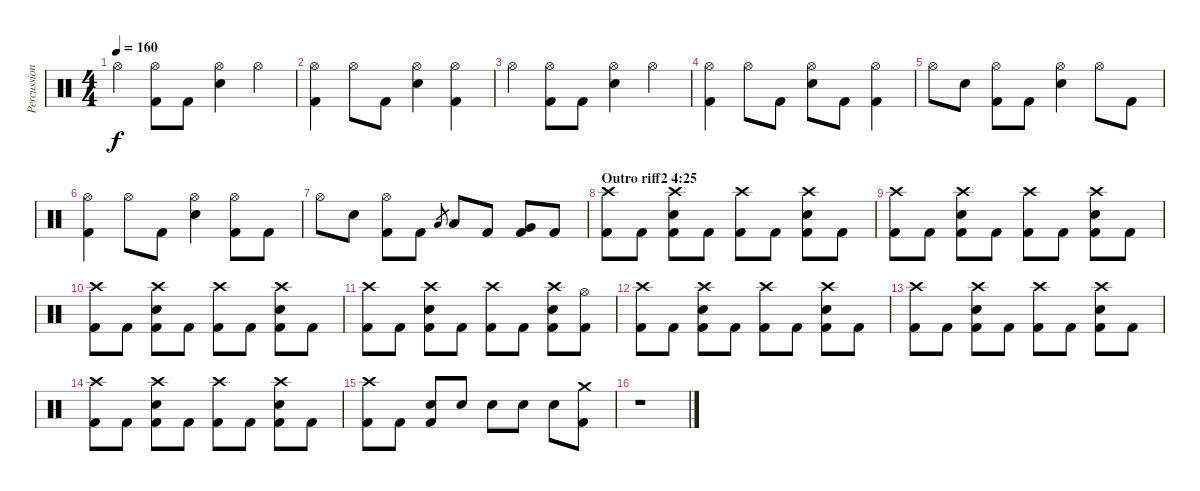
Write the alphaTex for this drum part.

\track ("Percussion" "Percussion") {instrument percussion}
\staff {score}
\articulation defaults
\ts (4 4)
\tempo 160
\clef neutral
\ks c "Hi-Hat (open)".4{dy f}
("Hi-Hat (open)" "Kick (hit) 2").8 "Kick (hit) 2".8 ("Hi-Hat (open)" "Snare (hit) 2").4 "Hi-Hat (open)".4 |
("Hi-Hat (open)" "Kick (hit) 2").4 "Hi-Hat (open)".8 "Kick (hit) 2".8 ("Hi-Hat (open)" "Snare (hit) 2").4 ("Hi-Hat (open)" "Kick (hit) 2").4 |
"Hi-Hat (open)".4 ("Hi-Hat (open)" "Kick (hit) 2").8 "Kick (hit) 2".8 ("Hi-Hat (open)" "Snare (hit) 2").4 "Hi-Hat (open)".4 |
("Hi-Hat (open)" "Kick (hit) 2").4 "Hi-Hat (open)".8 "Kick (hit) 2".8 ("Hi-Hat (open)" "Snare (hit) 2").8 "Kick (hit) 2".8 ("Hi-Hat (open)" "Kick (hit) 2").4 |
"Hi-Hat (open)".8 "Snare (hit) 2".8 ("Hi-Hat (open)" "Kick (hit) 2").8 "Kick (hit) 2".8 ("Hi-Hat (open)" "Snare (hit) 2").4 "Hi-Hat (open)".8 "Kick (hit) 2".8 |
("Hi-Hat (open)" "Kick (hit) 2").4 "Hi-Hat (open)".8 "Kick (hit) 2".8 ("Hi-Hat (open)" "Snare (hit) 2").4 ("Hi-Hat (open)" "Kick (hit) 2").8 "Kick (hit) 2".8 |
"Hi-Hat (open)".8 "Snare (hit) 2".8 ("Hi-Hat (open)" "Kick (hit) 2").8 "Kick (hit) 2".8 "Low Tom (hit)".8{gr} "Low Tom (hit)".8 "Kick (hit) 2".8 ("Very Low Tom (hit)" "Kick (hit) 2").8 "Kick (hit) 2".8 |
\section ("" "Outro riff2 4:25")
("Crash high (hit)" "Kick (hit) 2").8 "Kick (hit) 2".8 ("Crash high (hit)" "Snare (hit) 2" "Kick (hit) 2").8 "Kick (hit) 2".8 ("Crash high (hit)" "Kick (hit) 2").8 "Kick (hit) 2".8 ("Crash high (hit)" "Snare (hit) 2" "Kick (hit) 2").8 "Kick (hit) 2".8 |
("Crash high (hit)" "Kick (hit) 2").8 "Kick (hit) 2".8 ("Crash high (hit)" "Snare (hit) 2" "Kick (hit) 2").8 "Kick (hit) 2".8 ("Crash high (hit)" "Kick (hit) 2").8 "Kick (hit) 2".8 ("Crash high (hit)" "Snare (hit) 2" "Kick (hit) 2").8 "Kick (hit) 2".8 |
("Crash high (hit)" "Kick (hit) 2").8 "Kick (hit) 2".8 ("Crash high (hit)" "Snare (hit) 2" "Kick (hit) 2").8 "Kick (hit) 2".8 ("Crash high (hit)" "Kick (hit) 2").8 "Kick (hit) 2".8 ("Crash high (hit)" "Snare (hit) 2" "Kick (hit) 2").8 "Kick (hit) 2".8 |
("Crash high (hit)" "Kick (hit) 2").8 "Kick (hit) 2".8 ("Crash high (hit)" "Snare (hit) 2" "Kick (hit) 2").8 "Kick (hit) 2".8 ("Crash high (hit)" "Kick (hit) 2").8 "Kick (hit) 2".8 ("Crash high (hit)" "Snare (hit) 2" "Kick (hit) 2").8 ("Hi-Hat (open)" "Kick (hit) 2").8 |
("Crash high (hit)" "Kick (hit) 2").8 "Kick (hit) 2".8 ("Crash high (hit)" "Snare (hit) 2" "Kick (hit) 2").8 "Kick (hit) 2".8 ("Crash high (hit)" "Kick (hit) 2").8 "Kick (hit) 2".8 ("Crash high (hit)" "Snare (hit) 2" "Kick (hit) 2").8 "Kick (hit) 2".8 |
("Crash high (hit)" "Kick (hit) 2").8 "Kick (hit) 2".8 ("Crash high (hit)" "Snare (hit) 2" "Kick (hit) 2").8 "Kick (hit) 2".8 ("Crash high (hit)" "Kick (hit) 2").8 "Kick (hit) 2".8 ("Crash high (hit)" "Snare (hit) 2" "Kick (hit) 2").8 "Kick (hit) 2".8 |
("Crash high (hit)" "Kick (hit) 2").8 "Kick (hit) 2".8 ("Crash high (hit)" "Snare (hit) 2" "Kick (hit) 2").8 "Kick (hit) 2".8 ("Crash high (hit)" "Kick (hit) 2").8 "Kick (hit) 2".8 ("Crash high (hit)" "Snare (hit) 2" "Kick (hit) 2").8 "Kick (hit) 2".8 |
("Crash high (hit)" "Kick (hit) 2").8 "Kick (hit) 2".8 ("Snare (hit) 2" "Kick (hit) 2").8 "Snare (hit) 2".8 "Snare (hit) 2".8 "Snare (hit) 2".8 "Snare (hit) 2".8 ("Crash medium (hit)" "Kick (hit) 2").8 |
r.1{volume 0}
